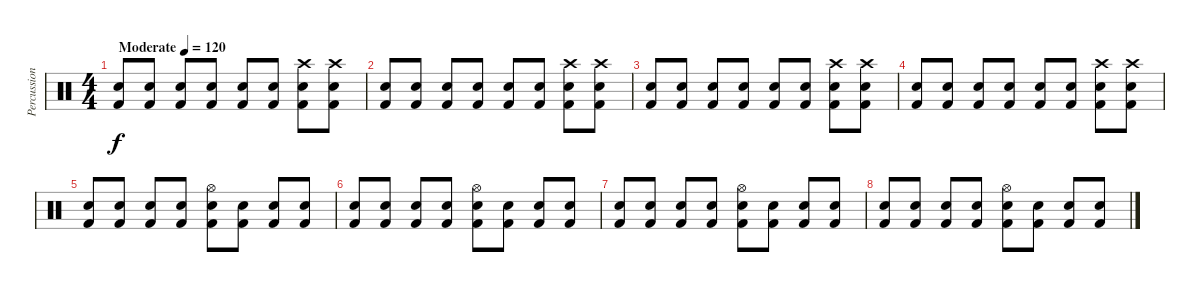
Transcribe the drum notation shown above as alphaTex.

\track ("Percussion" "Percussion") {instrument percussion}
\staff {score}
\articulation defaults
\ts (4 4)
\tempo (120 "Moderate")
\clef neutral
\ks c
("Snare (hit) 2" "Kick (hit) 2").8{dy f} ("Snare (hit) 2" "Kick (hit) 2").8 ("Snare (hit) 2" "Kick (hit) 2").8 ("Snare (hit) 2" "Kick (hit) 2").8 ("Snare (hit) 2" "Kick (hit) 2").8 ("Snare (hit) 2" "Kick (hit) 2").8 ("Crash high (hit)" "Snare (hit) 2" "Kick (hit) 2").8 ("Crash high (hit)" "Snare (hit) 2" "Kick (hit) 2").8 |
("Snare (hit) 2" "Kick (hit) 2").8 ("Snare (hit) 2" "Kick (hit) 2").8 ("Snare (hit) 2" "Kick (hit) 2").8 ("Snare (hit) 2" "Kick (hit) 2").8 ("Snare (hit) 2" "Kick (hit) 2").8 ("Snare (hit) 2" "Kick (hit) 2").8 ("Crash high (hit)" "Snare (hit) 2" "Kick (hit) 2").8 ("Crash high (hit)" "Snare (hit) 2" "Kick (hit) 2").8 |
("Snare (hit) 2" "Kick (hit) 2").8 ("Snare (hit) 2" "Kick (hit) 2").8 ("Snare (hit) 2" "Kick (hit) 2").8 ("Snare (hit) 2" "Kick (hit) 2").8 ("Snare (hit) 2" "Kick (hit) 2").8 ("Snare (hit) 2" "Kick (hit) 2").8 ("Crash high (hit)" "Snare (hit) 2" "Kick (hit) 2").8 ("Crash high (hit)" "Snare (hit) 2" "Kick (hit) 2").8 |
("Snare (hit) 2" "Kick (hit) 2").8 ("Snare (hit) 2" "Kick (hit) 2").8 ("Snare (hit) 2" "Kick (hit) 2").8 ("Snare (hit) 2" "Kick (hit) 2").8 ("Snare (hit) 2" "Kick (hit) 2").8 ("Snare (hit) 2" "Kick (hit) 2").8 ("Crash high (hit)" "Snare (hit) 2" "Kick (hit) 2").8 ("Crash high (hit)" "Snare (hit) 2" "Kick (hit) 2").8 |
("Snare (hit) 2" "Kick (hit) 2").8 ("Snare (hit) 2" "Kick (hit) 2").8 ("Snare (hit) 2" "Kick (hit) 2").8 ("Snare (hit) 2" "Kick (hit) 2").8 ("Hi-Hat (open)" "Snare (hit) 2" "Kick (hit) 2").8 ("Snare (hit) 2" "Kick (hit) 2").8 ("Snare (hit) 2" "Kick (hit) 2").8 ("Snare (hit) 2" "Kick (hit) 2").8 |
("Snare (hit) 2" "Kick (hit) 2").8 ("Snare (hit) 2" "Kick (hit) 2").8 ("Snare (hit) 2" "Kick (hit) 2").8 ("Snare (hit) 2" "Kick (hit) 2").8 ("Hi-Hat (open)" "Snare (hit) 2" "Kick (hit) 2").8 ("Snare (hit) 2" "Kick (hit) 2").8 ("Snare (hit) 2" "Kick (hit) 2").8 ("Snare (hit) 2" "Kick (hit) 2").8 |
("Snare (hit) 2" "Kick (hit) 2").8 ("Snare (hit) 2" "Kick (hit) 2").8 ("Snare (hit) 2" "Kick (hit) 2").8 ("Snare (hit) 2" "Kick (hit) 2").8 ("Hi-Hat (open)" "Snare (hit) 2" "Kick (hit) 2").8 ("Snare (hit) 2" "Kick (hit) 2").8 ("Snare (hit) 2" "Kick (hit) 2").8 ("Snare (hit) 2" "Kick (hit) 2").8 |
("Snare (hit) 2" "Kick (hit) 2").8 ("Snare (hit) 2" "Kick (hit) 2").8 ("Snare (hit) 2" "Kick (hit) 2").8 ("Snare (hit) 2" "Kick (hit) 2").8 ("Hi-Hat (open)" "Snare (hit) 2" "Kick (hit) 2").8 ("Snare (hit) 2" "Kick (hit) 2").8 ("Snare (hit) 2" "Kick (hit) 2").8 ("Snare (hit) 2" "Kick (hit) 2").8
